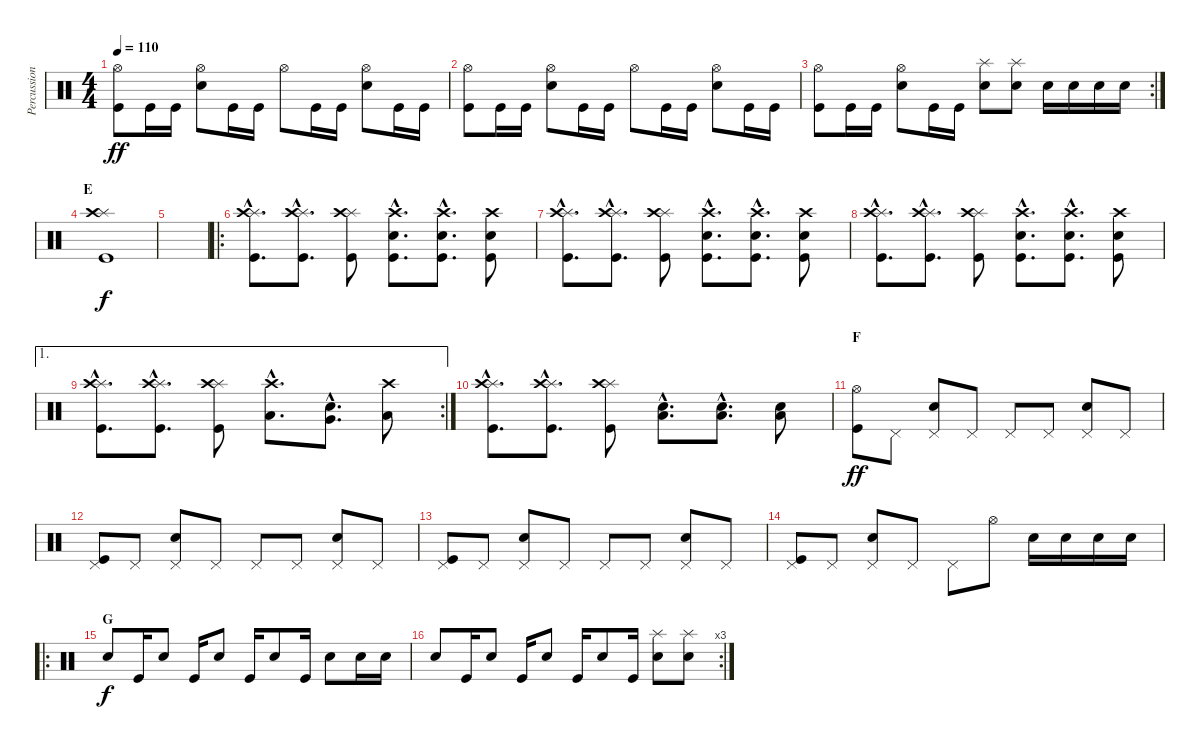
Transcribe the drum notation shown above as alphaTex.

\track ("Percussion" "Percussion") {instrument percussion}
\staff {score}
\articulation defaults
\ts (4 4)
\tempo 110
\clef neutral
\ks c
("Hi-Hat (open)" "Kick (hit)").8{dy ff} "Kick (hit)".16 "Kick (hit)".16 ("Hi-Hat (open)" "Snare (hit) 2").8 "Kick (hit)".16 "Kick (hit)".16 "Hi-Hat (open)".8 "Kick (hit)".16 "Kick (hit)".16 ("Hi-Hat (open)" "Snare (hit) 2").8 "Kick (hit)".16 "Kick (hit)".16 |
("Hi-Hat (open)" "Kick (hit)").8 "Kick (hit)".16 "Kick (hit)".16 ("Hi-Hat (open)" "Snare (hit) 2").8 "Kick (hit)".16 "Kick (hit)".16 "Hi-Hat (open)".8 "Kick (hit)".16 "Kick (hit)".16 ("Hi-Hat (open)" "Snare (hit) 2").8 "Kick (hit)".16 "Kick (hit)".16 |
\rc 2
("Hi-Hat (open)" "Kick (hit)").8 "Kick (hit)".16 "Kick (hit)".16 ("Hi-Hat (open)" "Snare (hit) 2").8 "Kick (hit)".16 "Kick (hit)".16 ("Splash (hit)" "Snare (hit) 2").8 ("Splash (hit)" "Snare (hit) 2").8 "Snare (hit) 2".16 "Snare (hit) 2".16 "Snare (hit) 2".16 "Snare (hit) 2".16 |
\section ("" "E")
("Splash (hit)" "Crash high (hit)" "Kick (hit)").1{dy f} |
|
\ro
("Splash (hit)"{hac} "Crash high (hit)"{hac} "Kick (hit)"{hac}).8{d} ("Splash (hit)"{hac} "Crash high (hit)"{hac} "Kick (hit)"{hac}).8{d} ("Splash (hit)" "Crash high (hit)" "Kick (hit)").8 ("Crash high (hit)"{hac} "Snare (hit) 2"{hac} "Kick (hit)"{hac}).8{d} ("Crash high (hit)"{hac} "Snare (hit) 2"{hac} "Kick (hit)"{hac}).8{d} ("Crash high (hit)" "Snare (hit) 2" "Kick (hit)").8 |
("Splash (hit)"{hac} "Crash high (hit)"{hac} "Kick (hit)"{hac}).8{d} ("Splash (hit)"{hac} "Crash high (hit)"{hac} "Kick (hit)"{hac}).8{d} ("Splash (hit)" "Crash high (hit)" "Kick (hit)").8 ("Crash high (hit)"{hac} "Snare (hit) 2"{hac} "Kick (hit)"{hac}).8{d} ("Crash high (hit)"{hac} "Snare (hit) 2"{hac} "Kick (hit)"{hac}).8{d} ("Crash high (hit)" "Snare (hit) 2" "Kick (hit)").8 |
("Splash (hit)"{hac} "Crash high (hit)"{hac} "Kick (hit)"{hac}).8{d} ("Splash (hit)"{hac} "Crash high (hit)"{hac} "Kick (hit)"{hac}).8{d} ("Splash (hit)" "Crash high (hit)" "Kick (hit)").8 ("Crash high (hit)"{hac} "Snare (hit) 2"{hac} "Kick (hit)"{hac}).8{d} ("Crash high (hit)"{hac} "Snare (hit) 2"{hac} "Kick (hit)"{hac}).8{d} ("Crash high (hit)" "Snare (hit) 2" "Kick (hit)").8 |
\ae 1
\rc 2
("Splash (hit)"{hac} "Crash high (hit)"{hac} "Kick (hit)"{hac}).8{d} ("Splash (hit)"{hac} "Crash high (hit)"{hac} "Kick (hit)"{hac}).8{d} ("Splash (hit)" "Crash high (hit)" "Kick (hit)").8 ("Crash high (hit)"{hac} "Low Tom (hit)"{hac}).8{d} ("Snare (hit) 2"{hac} "Very Low Tom (hit)"{hac}).8{d} ("Crash high (hit)" "Low Tom (hit)").8 |
("Splash (hit)"{hac} "Crash high (hit)"{hac} "Kick (hit)"{hac}).8{d} ("Splash (hit)"{hac} "Crash high (hit)"{hac} "Kick (hit)"{hac}).8{d} ("Splash (hit)" "Crash high (hit)" "Kick (hit)").8 ("Low Tom (hit)"{hac} "Snare (hit) 2"{hac}).8{d} ("Low Tom (hit)"{hac} "Snare (hit) 2"{hac}).8{d} ("Low Tom (hit)" "Snare (hit) 2").8 |
\section ("" "F")
("Hi-Hat (open)" "Kick (hit)").8{dy ff} "Pedal Hi-Hat (hit)".8 ("Pedal Hi-Hat (hit)" "Snare (hit) 2").8 "Pedal Hi-Hat (hit)".8 "Pedal Hi-Hat (hit)".8 "Pedal Hi-Hat (hit)".8 ("Pedal Hi-Hat (hit)" "Snare (hit) 2").8 "Pedal Hi-Hat (hit)".8 |
("Pedal Hi-Hat (hit)" "Kick (hit)").8 "Pedal Hi-Hat (hit)".8 ("Pedal Hi-Hat (hit)" "Snare (hit) 2").8 "Pedal Hi-Hat (hit)".8 "Pedal Hi-Hat (hit)".8 "Pedal Hi-Hat (hit)".8 ("Pedal Hi-Hat (hit)" "Snare (hit) 2").8 "Pedal Hi-Hat (hit)".8 |
("Pedal Hi-Hat (hit)" "Kick (hit)").8 "Pedal Hi-Hat (hit)".8 ("Pedal Hi-Hat (hit)" "Snare (hit) 2").8 "Pedal Hi-Hat (hit)".8 "Pedal Hi-Hat (hit)".8 "Pedal Hi-Hat (hit)".8 ("Pedal Hi-Hat (hit)" "Snare (hit) 2").8 "Pedal Hi-Hat (hit)".8 |
("Pedal Hi-Hat (hit)" "Kick (hit)").8 "Pedal Hi-Hat (hit)".8 ("Pedal Hi-Hat (hit)" "Snare (hit) 2").8 "Pedal Hi-Hat (hit)".8 "Pedal Hi-Hat (hit)".8 "Hi-Hat (open)".8 "Snare (hit) 2".16 "Snare (hit) 2".16 "Snare (hit) 2".16 "Snare (hit) 2".16 |
\ro
\section ("" "G")
"Snare (hit) 2".8{dy f} "Kick (hit)".16 "Snare (hit) 2".8 "Kick (hit)".16 "Snare (hit) 2".8 "Kick (hit)".16 "Snare (hit) 2".8 "Kick (hit)".16 "Snare (hit) 2".8 "Snare (hit) 2".16 "Snare (hit) 2".16 |
\rc 3 "Snare (hit) 2".8 "Kick (hit)".16 "Snare (hit) 2".8 "Kick (hit)".16 "Snare (hit) 2".8 "Kick (hit)".16 "Snare (hit) 2".8 "Kick (hit)".16
("Splash (hit)" "Snare (hit) 2").8 ("Splash (hit)" "Snare (hit) 2").8
